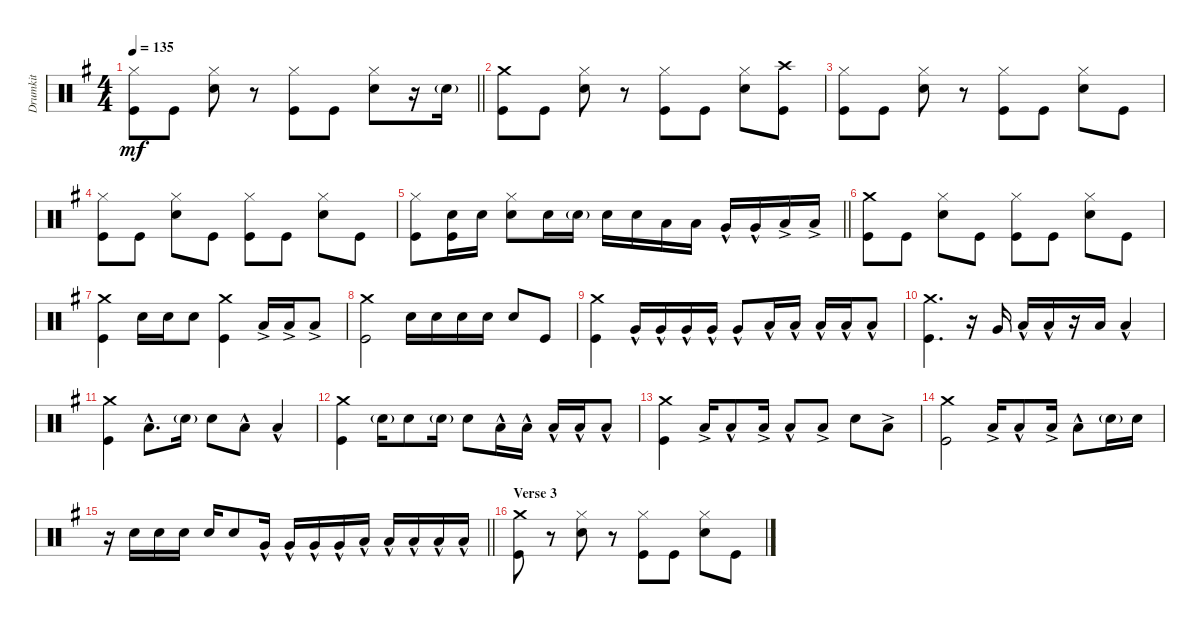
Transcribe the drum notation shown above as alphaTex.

\track ("Drumkit" "Drumkit") {instrument percussion}
\staff {score}
\articulation defaults
\ts (4 4)
\tempo 135
\clef neutral
\barLineRight lightlight
\ks g
("Kick (hit)" "Hi-Hat (closed)").8{dy mf} "Kick (hit)".8 ("Snare (hit) 2" "Hi-Hat (closed)").8 r.8 ("Kick (hit)" "Hi-Hat (closed)").8 "Kick (hit)".8 ("Snare (hit) 2" "Hi-Hat (closed)").8 r.16 "Snare (hit) 2"{g}.16 |
("Kick (hit)" "Crash medium (hit)").8 "Kick (hit)".8 ("Snare (hit) 2" "Hi-Hat (closed)").8 r.8 ("Kick (hit)" "Hi-Hat (closed)").8 "Kick (hit)".8 ("Snare (hit) 2" "Hi-Hat (closed)").8 ("Kick (hit)" "Crash high (hit)").8 |
("Kick (hit)" "Hi-Hat (closed)").8 "Kick (hit)".8 ("Snare (hit) 2" "Hi-Hat (closed)").8 r.8 ("Kick (hit)" "Hi-Hat (closed)").8 "Kick (hit)".8 ("Snare (hit) 2" "Hi-Hat (closed)").8 "Kick (hit)".8 |
("Kick (hit)" "Hi-Hat (closed)").8 "Kick (hit)".8 ("Snare (hit) 2" "Hi-Hat (closed)").8 "Kick (hit)".8 ("Kick (hit)" "Hi-Hat (closed)").8 "Kick (hit)".8 ("Snare (hit) 2" "Hi-Hat (closed)").8 "Kick (hit)".8 |
\barLineRight lightlight
("Kick (hit)" "Hi-Hat (closed)").8 ("Kick (hit)" "Snare (hit) 2").16 "Snare (hit) 2".16 ("Snare (hit) 2" "Hi-Hat (closed)").8 "Snare (hit) 2".16 "Snare (hit) 2"{g}.16 "Snare (hit) 2".16 "Snare (hit) 2".16 "Low Tom (hit)".16 "Low Tom (hit)".16 "Very Low Tom (hit)"{hac}.16 "Very Low Tom (hit)"{hac}.16 "Low Floor Tom (hit)"{ac}.16 "Low Floor Tom (hit)"{ac}.16 |
("Kick (hit)" "Crash medium (hit)").8 "Kick (hit)".8 ("Snare (hit) 2" "Hi-Hat (closed)").8 "Kick (hit)".8 ("Kick (hit)" "Hi-Hat (closed)").8 "Kick (hit)".8 ("Snare (hit) 2" "Hi-Hat (closed)").8 "Kick (hit)".8 |
("Kick (hit)" "Crash medium (hit)").4 "Snare (hit) 2".16 "Snare (hit) 2".16 "Snare (hit) 2".8 ("Kick (hit)" "Crash medium (hit)").4 "Low Floor Tom (hit)"{ac}.16 "Low Floor Tom (hit)"{ac}.16 "Low Floor Tom (hit)"{ac}.8 |
("Kick (hit)" "Crash medium (hit)").2 "Snare (hit) 2".16 "Snare (hit) 2".16 "Snare (hit) 2".16 "Snare (hit) 2".16 "Snare (hit) 2".8 "Kick (hit)".8 |
("Kick (hit)" "Crash medium (hit)").4 "Very Low Tom (hit)"{hac}.16 "Very Low Tom (hit)"{hac}.16 "Very Low Tom (hit)"{hac}.16 "Very Low Tom (hit)"{hac}.16 "Very Low Tom (hit)"{hac}.8 "Low Floor Tom (hit)"{hac}.16 "Low Floor Tom (hit)"{hac}.16 "Low Floor Tom (hit)"{hac}.16 "Low Floor Tom (hit)"{hac}.16 "Low Floor Tom (hit)"{hac}.8 |
("Kick (hit)" "Crash medium (hit)").4{d} r.16 "Very Low Tom (hit)".16 "Low Tom (hit)"{hac}.16 "Low Floor Tom (hit)"{hac}.16 r.16 "Low Tom (hit)".16 "Low Floor Tom (hit)"{hac}.4 |
("Kick (hit)" "Crash medium (hit)").4 "Low Floor Tom (hit)"{hac}.8{d} "Snare (hit) 2"{g}.16 "Snare (hit) 2".8 "Low Floor Tom (hit)"{hac}.8 "Low Floor Tom (hit)"{hac}.4 |
("Kick (hit)" "Crash medium (hit)").4 "Snare (hit) 2"{g}.16 "Snare (hit) 2".8 "Snare (hit) 2"{g}.16 "Snare (hit) 2".8 "Low Floor Tom (hit)"{hac}.16 "Low Floor Tom (hit)"{hac}.16 "Low Floor Tom (hit)"{hac}.16 "Low Floor Tom (hit)"{hac}.16 "Low Floor Tom (hit)"{hac}.8 |
("Kick (hit)" "Crash medium (hit)").4 "Low Floor Tom (hit)"{ac}.16 "Low Floor Tom (hit)"{hac}.8 "Low Floor Tom (hit)"{ac}.16 "Low Floor Tom (hit)"{hac}.8 "Low Floor Tom (hit)"{ac}.8 "Snare (hit) 2".8 "Low Floor Tom (hit)"{ac}.8 |
("Kick (hit)" "Crash medium (hit)").2 "Low Floor Tom (hit)"{ac}.16 "Low Floor Tom (hit)"{hac}.8 "Low Floor Tom (hit)"{ac}.16 "Low Floor Tom (hit)"{hac}.8 "Snare (hit) 2"{g}.16 "Snare (hit) 2".16 |
\barLineRight lightlight
r.16 "Snare (hit) 2".16 "Snare (hit) 2".16 "Snare (hit) 2".16 "Snare (hit) 2".16 "Snare (hit) 2".8 "Very Low Tom (hit)"{hac}.16 "Very Low Tom (hit)"{hac}.16 "Very Low Tom (hit)"{hac}.16 "Very Low Tom (hit)"{hac}.16 "Low Floor Tom (hit)"{hac}.16 "Low Floor Tom (hit)"{hac}.16 "Low Floor Tom (hit)"{hac}.16 "Low Floor Tom (hit)"{hac}.16 "Low Floor Tom (hit)"{hac}.16 |
\section ("" "Verse 3")
("Kick (hit)" "Crash medium (hit)").8 r.8 ("Hi-Hat (closed)" "Snare (hit) 2").8 r.8 ("Hi-Hat (closed)" "Kick (hit)").8 "Kick (hit)".8 ("Hi-Hat (closed)" "Snare (hit) 2").8 "Kick (hit)".8
